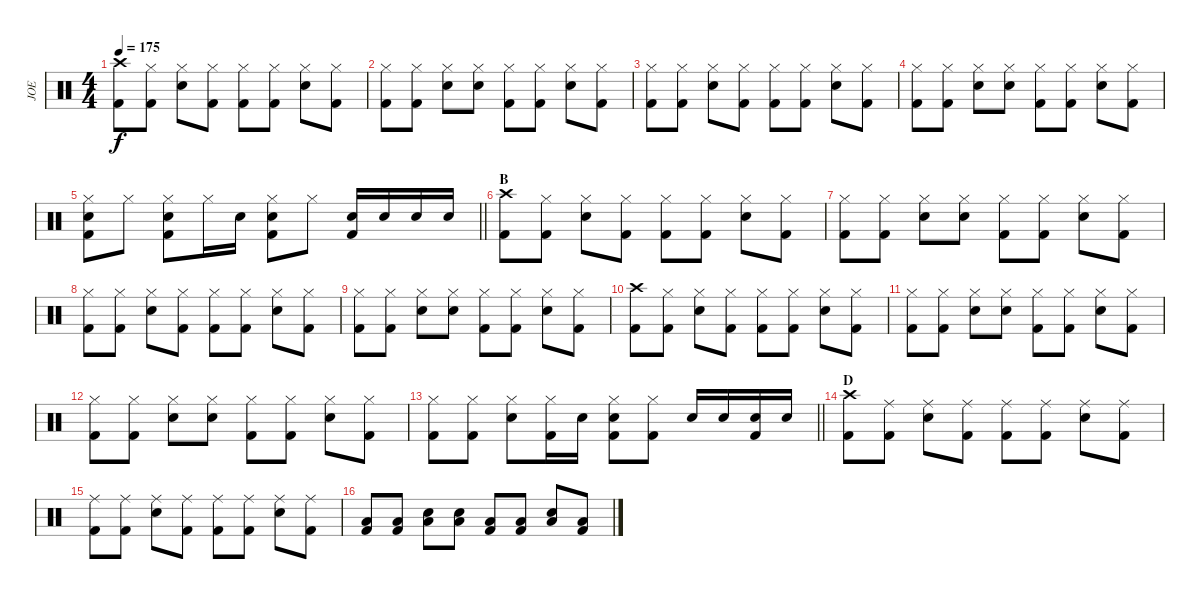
\track ("JOE" "JOE") {instrument percussion}
\staff {score}
\articulation defaults
\ts (4 4)
\tempo 175
\clef neutral
\ks c
("Crash high (hit)" "Kick (hit) 2").8{dy f} ("Hi-Hat (closed)" "Kick (hit) 2").8 ("Hi-Hat (closed)" "Snare (hit) 2").8 ("Hi-Hat (closed)" "Kick (hit) 2").8 ("Hi-Hat (closed)" "Kick (hit) 2").8 ("Hi-Hat (closed)" "Kick (hit) 2").8 ("Hi-Hat (closed)" "Snare (hit) 2").8 ("Hi-Hat (closed)" "Kick (hit) 2").8 |
("Hi-Hat (closed)" "Kick (hit) 2").8 ("Hi-Hat (closed)" "Kick (hit) 2").8 ("Hi-Hat (closed)" "Snare (hit) 2").8 ("Hi-Hat (closed)" "Snare (hit) 2").8 ("Hi-Hat (closed)" "Kick (hit) 2").8 ("Hi-Hat (closed)" "Kick (hit) 2").8 ("Hi-Hat (closed)" "Snare (hit) 2").8 ("Hi-Hat (closed)" "Kick (hit) 2").8 |
("Hi-Hat (closed)" "Kick (hit) 2").8 ("Hi-Hat (closed)" "Kick (hit) 2").8 ("Hi-Hat (closed)" "Snare (hit) 2").8 ("Hi-Hat (closed)" "Kick (hit) 2").8 ("Hi-Hat (closed)" "Kick (hit) 2").8 ("Hi-Hat (closed)" "Kick (hit) 2").8 ("Hi-Hat (closed)" "Snare (hit) 2").8 ("Hi-Hat (closed)" "Kick (hit) 2").8 |
("Hi-Hat (closed)" "Kick (hit) 2").8 ("Hi-Hat (closed)" "Kick (hit) 2").8 ("Hi-Hat (closed)" "Snare (hit) 2").8 ("Hi-Hat (closed)" "Snare (hit) 2").8 ("Hi-Hat (closed)" "Kick (hit) 2").8 ("Hi-Hat (closed)" "Kick (hit) 2").8 ("Hi-Hat (closed)" "Snare (hit) 2").8 ("Hi-Hat (closed)" "Kick (hit) 2").8 |
\barLineRight lightlight
("Hi-Hat (closed)" "Snare (hit) 2" "Kick (hit) 2").8 "Hi-Hat (closed)".8 ("Hi-Hat (closed)" "Snare (hit) 2" "Kick (hit) 2").8 "Hi-Hat (closed)".16 "Snare (hit) 2".16 ("Hi-Hat (closed)" "Snare (hit) 2" "Kick (hit) 2").8 "Hi-Hat (closed)".8 ("Snare (hit) 2" "Kick (hit) 2").16 "Snare (hit) 2".16 "Snare (hit) 2".16 "Snare (hit) 2".16 |
\section ("" "B")
("Crash high (hit)" "Kick (hit) 2").8 ("Hi-Hat (closed)" "Kick (hit) 2").8 ("Hi-Hat (closed)" "Snare (hit) 2").8 ("Hi-Hat (closed)" "Kick (hit) 2").8 ("Hi-Hat (closed)" "Kick (hit) 2").8 ("Hi-Hat (closed)" "Kick (hit) 2").8 ("Hi-Hat (closed)" "Snare (hit) 2").8 ("Hi-Hat (closed)" "Kick (hit) 2").8 |
("Hi-Hat (closed)" "Kick (hit) 2").8 ("Hi-Hat (closed)" "Kick (hit) 2").8 ("Hi-Hat (closed)" "Snare (hit) 2").8 ("Hi-Hat (closed)" "Snare (hit) 2").8 ("Hi-Hat (closed)" "Kick (hit) 2").8 ("Hi-Hat (closed)" "Kick (hit) 2").8 ("Hi-Hat (closed)" "Snare (hit) 2").8 ("Hi-Hat (closed)" "Kick (hit) 2").8 |
("Hi-Hat (closed)" "Kick (hit) 2").8 ("Hi-Hat (closed)" "Kick (hit) 2").8 ("Hi-Hat (closed)" "Snare (hit) 2").8 ("Hi-Hat (closed)" "Kick (hit) 2").8 ("Hi-Hat (closed)" "Kick (hit) 2").8 ("Hi-Hat (closed)" "Kick (hit) 2").8 ("Hi-Hat (closed)" "Snare (hit) 2").8 ("Hi-Hat (closed)" "Kick (hit) 2").8 |
("Hi-Hat (closed)" "Kick (hit) 2").8 ("Hi-Hat (closed)" "Kick (hit) 2").8 ("Hi-Hat (closed)" "Snare (hit) 2").8 ("Hi-Hat (closed)" "Snare (hit) 2").8 ("Hi-Hat (closed)" "Kick (hit) 2").8 ("Hi-Hat (closed)" "Kick (hit) 2").8 ("Hi-Hat (closed)" "Snare (hit) 2").8 ("Hi-Hat (closed)" "Kick (hit) 2").8 |
("Crash high (hit)" "Kick (hit) 2").8 ("Hi-Hat (closed)" "Kick (hit) 2").8 ("Hi-Hat (closed)" "Snare (hit) 2").8 ("Hi-Hat (closed)" "Kick (hit) 2").8 ("Hi-Hat (closed)" "Kick (hit) 2").8 ("Hi-Hat (closed)" "Kick (hit) 2").8 ("Hi-Hat (closed)" "Snare (hit) 2").8 ("Hi-Hat (closed)" "Kick (hit) 2").8 |
("Hi-Hat (closed)" "Kick (hit) 2").8 ("Hi-Hat (closed)" "Kick (hit) 2").8 ("Hi-Hat (closed)" "Snare (hit) 2").8 ("Hi-Hat (closed)" "Snare (hit) 2").8 ("Hi-Hat (closed)" "Kick (hit) 2").8 ("Hi-Hat (closed)" "Kick (hit) 2").8 ("Hi-Hat (closed)" "Snare (hit) 2").8 ("Hi-Hat (closed)" "Kick (hit) 2").8 |
("Hi-Hat (closed)" "Kick (hit) 2").8 ("Hi-Hat (closed)" "Kick (hit) 2").8 ("Hi-Hat (closed)" "Snare (hit) 2").8 ("Hi-Hat (closed)" "Snare (hit) 2").8 ("Hi-Hat (closed)" "Kick (hit) 2").8 ("Hi-Hat (closed)" "Kick (hit) 2").8 ("Hi-Hat (closed)" "Snare (hit) 2").8 ("Hi-Hat (closed)" "Kick (hit) 2").8 |
\barLineRight lightlight
("Hi-Hat (closed)" "Kick (hit) 2").8 ("Hi-Hat (closed)" "Kick (hit) 2").8 ("Hi-Hat (closed)" "Snare (hit) 2").8 ("Hi-Hat (closed)" "Kick (hit) 2").16 "Snare (hit) 2".16 ("Hi-Hat (closed)" "Snare (hit) 2" "Kick (hit) 2").8 ("Hi-Hat (closed)" "Kick (hit) 2").8 "Snare (hit) 2".16 "Snare (hit) 2".16 ("Snare (hit) 2" "Kick (hit) 2").16 "Snare (hit) 2".16 |
\section ("" "D")
("Crash high (hit)" "Kick (hit) 2").8 ("Ride (middle)" "Kick (hit) 2").8 ("Ride (middle)" "Snare (hit) 2").8 ("Ride (middle)" "Kick (hit) 2").8 ("Ride (middle)" "Kick (hit) 2").8 ("Ride (middle)" "Kick (hit) 2").8 ("Ride (middle)" "Snare (hit) 2").8 ("Ride (middle)" "Kick (hit) 2").8 |
("Ride (middle)" "Kick (hit) 2").8 ("Ride (middle)" "Kick (hit) 2").8 ("Ride (middle)" "Snare (hit) 2").8 ("Ride (middle)" "Kick (hit) 2").8 ("Ride (middle)" "Kick (hit) 2").8 ("Ride (middle)" "Kick (hit) 2").8 ("Ride (middle)" "Snare (hit) 2").8 ("Ride (middle)" "Kick (hit) 2").8 |
("Low Floor Tom (hit)" "Kick (hit) 2").8 ("Low Floor Tom (hit)" "Kick (hit) 2").8 ("Low Floor Tom (hit)" "Snare (hit) 2").8 ("Low Floor Tom (hit)" "Snare (hit) 2").8 ("Low Floor Tom (hit)" "Kick (hit) 2").8 ("Low Floor Tom (hit)" "Kick (hit) 2").8 ("Low Floor Tom (hit)" "Snare (hit) 2").8 ("Low Floor Tom (hit)" "Kick (hit) 2").8
